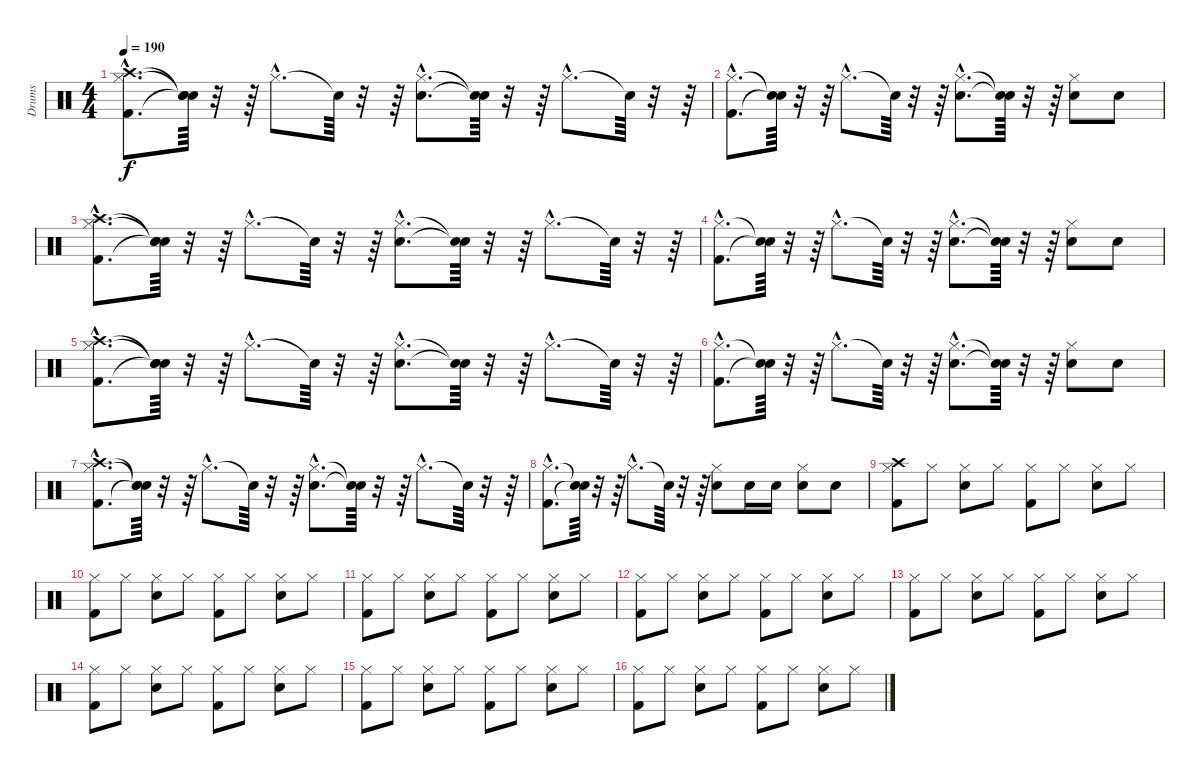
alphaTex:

\track ("Drums" "Drums") {instrument percussion}
\staff {score}
\articulation defaults
\ts (4 4)
\tempo 190
\clef neutral
\ks c
("Kick (hit) 2"{hac} "Hi-Hat (closed)"{hac} "Crash high (hit)"{hac}).8{d dy f} ("Snare (hit)"{t} "Snare (hit)"{t} "Snare (hit)"{t}).64 r.32 r.64 "Hi-Hat (closed)"{hac}.8{d} "Snare (hit)"{t}.64 r.32 r.64 ("Snare (hit) 2"{hac} "Hi-Hat (closed)"{hac}).8{d} ("Snare (hit)"{t} "Snare (hit)"{t}).64 r.32 r.64 "Hi-Hat (closed)"{hac}.8{d} "Snare (hit)"{t}.64 r.32 r.64 |
("Kick (hit) 2"{hac} "Hi-Hat (closed)"{hac}).8{d} ("Snare (hit)"{t} "Snare (hit)"{t}).64 r.32 r.64 "Hi-Hat (closed)"{hac}.8{d} "Snare (hit)"{t}.64 r.32 r.64 ("Snare (hit) 2"{hac} "Hi-Hat (closed)"{hac}).8{d} ("Snare (hit)"{t} "Snare (hit)"{t}).64 r.32 r.64 ("Snare (hit) 2" "Hi-Hat (closed)").8 "Snare (hit) 2".8 |
("Kick (hit) 2"{hac} "Hi-Hat (closed)"{hac} "Crash high (hit)"{hac}).8{d} ("Snare (hit)"{t} "Snare (hit)"{t} "Snare (hit)"{t}).64 r.32 r.64 "Hi-Hat (closed)"{hac}.8{d} "Snare (hit)"{t}.64 r.32 r.64 ("Snare (hit) 2"{hac} "Hi-Hat (closed)"{hac}).8{d} ("Snare (hit)"{t} "Snare (hit)"{t}).64 r.32 r.64 "Hi-Hat (closed)"{hac}.8{d} "Snare (hit)"{t}.64 r.32 r.64 |
("Kick (hit) 2"{hac} "Hi-Hat (closed)"{hac}).8{d} ("Snare (hit)"{t} "Snare (hit)"{t}).64 r.32 r.64 "Hi-Hat (closed)"{hac}.8{d} "Snare (hit)"{t}.64 r.32 r.64 ("Snare (hit) 2"{hac} "Hi-Hat (closed)"{hac}).8{d} ("Snare (hit)"{t} "Snare (hit)"{t}).64 r.32 r.64 ("Snare (hit) 2" "Hi-Hat (closed)").8 "Snare (hit) 2".8 |
("Kick (hit) 2"{hac} "Hi-Hat (closed)"{hac} "Crash high (hit)"{hac}).8{d} ("Snare (hit)"{t} "Snare (hit)"{t} "Snare (hit)"{t}).64 r.32 r.64 "Hi-Hat (closed)"{hac}.8{d} "Snare (hit)"{t}.64 r.32 r.64 ("Snare (hit) 2"{hac} "Hi-Hat (closed)"{hac}).8{d} ("Snare (hit)"{t} "Snare (hit)"{t}).64 r.32 r.64 "Hi-Hat (closed)"{hac}.8{d} "Snare (hit)"{t}.64 r.32 r.64 |
("Kick (hit) 2"{hac} "Hi-Hat (closed)"{hac}).8{d} ("Snare (hit)"{t} "Snare (hit)"{t}).64 r.32 r.64 "Hi-Hat (closed)"{hac}.8{d} "Snare (hit)"{t}.64 r.32 r.64 ("Snare (hit) 2"{hac} "Hi-Hat (closed)"{hac}).8{d} ("Snare (hit)"{t} "Snare (hit)"{t}).64 r.32 r.64 ("Snare (hit) 2" "Hi-Hat (closed)").8 "Snare (hit) 2".8 |
("Kick (hit) 2"{hac} "Hi-Hat (closed)"{hac} "Crash high (hit)"{hac}).8{d} ("Snare (hit)"{t} "Snare (hit)"{t} "Snare (hit)"{t}).64 r.32 r.64 "Hi-Hat (closed)"{hac}.8{d} "Snare (hit)"{t}.64 r.32 r.64 ("Snare (hit) 2"{hac} "Hi-Hat (closed)"{hac}).8{d} ("Snare (hit)"{t} "Snare (hit)"{t}).64 r.32 r.64 "Hi-Hat (closed)"{hac}.8{d} "Snare (hit)"{t}.64 r.32 r.64 |
("Kick (hit) 2"{hac} "Hi-Hat (closed)"{hac}).8{d} ("Snare (hit)"{t} "Snare (hit)"{t}).64 r.32 r.64 "Hi-Hat (closed)"{hac}.8{d} "Snare (hit)"{t}.64 r.32 r.64 ("Snare (hit) 2" "Hi-Hat (closed)").8 "Snare (hit) 2".16 "Snare (hit) 2".16 ("Snare (hit) 2" "Hi-Hat (closed)").8 "Snare (hit) 2".8 |
("Kick (hit) 2" "Hi-Hat (closed)" "Crash high (hit)").8 "Hi-Hat (closed)".8 ("Snare (hit) 2" "Hi-Hat (closed)").8 "Hi-Hat (closed)".8 ("Kick (hit) 2" "Hi-Hat (closed)").8 "Hi-Hat (closed)".8 ("Snare (hit) 2" "Hi-Hat (closed)").8 "Hi-Hat (closed)".8 |
("Kick (hit) 2" "Hi-Hat (closed)").8 "Hi-Hat (closed)".8 ("Snare (hit) 2" "Hi-Hat (closed)").8 "Hi-Hat (closed)".8 ("Kick (hit) 2" "Hi-Hat (closed)").8 "Hi-Hat (closed)".8 ("Snare (hit) 2" "Hi-Hat (closed)").8 "Hi-Hat (closed)".8 |
("Kick (hit) 2" "Hi-Hat (closed)").8 "Hi-Hat (closed)".8 ("Snare (hit) 2" "Hi-Hat (closed)").8 "Hi-Hat (closed)".8 ("Kick (hit) 2" "Hi-Hat (closed)").8 "Hi-Hat (closed)".8 ("Snare (hit) 2" "Hi-Hat (closed)").8 "Hi-Hat (closed)".8 |
("Kick (hit) 2" "Hi-Hat (closed)").8 "Hi-Hat (closed)".8 ("Snare (hit) 2" "Hi-Hat (closed)").8 "Hi-Hat (closed)".8 ("Kick (hit) 2" "Hi-Hat (closed)").8 "Hi-Hat (closed)".8 ("Snare (hit) 2" "Hi-Hat (closed)").8 "Hi-Hat (closed)".8 |
("Kick (hit) 2" "Hi-Hat (closed)").8 "Hi-Hat (closed)".8 ("Snare (hit) 2" "Hi-Hat (closed)").8 "Hi-Hat (closed)".8 ("Kick (hit) 2" "Hi-Hat (closed)").8 "Hi-Hat (closed)".8 ("Snare (hit) 2" "Hi-Hat (closed)").8 "Hi-Hat (closed)".8 |
("Kick (hit) 2" "Hi-Hat (closed)").8 "Hi-Hat (closed)".8 ("Snare (hit) 2" "Hi-Hat (closed)").8 "Hi-Hat (closed)".8 ("Kick (hit) 2" "Hi-Hat (closed)").8 "Hi-Hat (closed)".8 ("Snare (hit) 2" "Hi-Hat (closed)").8 "Hi-Hat (closed)".8 |
("Kick (hit) 2" "Hi-Hat (closed)").8 "Hi-Hat (closed)".8 ("Snare (hit) 2" "Hi-Hat (closed)").8 "Hi-Hat (closed)".8 ("Kick (hit) 2" "Hi-Hat (closed)").8 "Hi-Hat (closed)".8 ("Snare (hit) 2" "Hi-Hat (closed)").8 "Hi-Hat (closed)".8 |
("Kick (hit) 2" "Hi-Hat (closed)").8 "Hi-Hat (closed)".8 ("Snare (hit) 2" "Hi-Hat (closed)").8 "Hi-Hat (closed)".8 ("Kick (hit) 2" "Hi-Hat (closed)").8 "Hi-Hat (closed)".8 ("Snare (hit) 2" "Hi-Hat (closed)").8 "Hi-Hat (closed)".8
